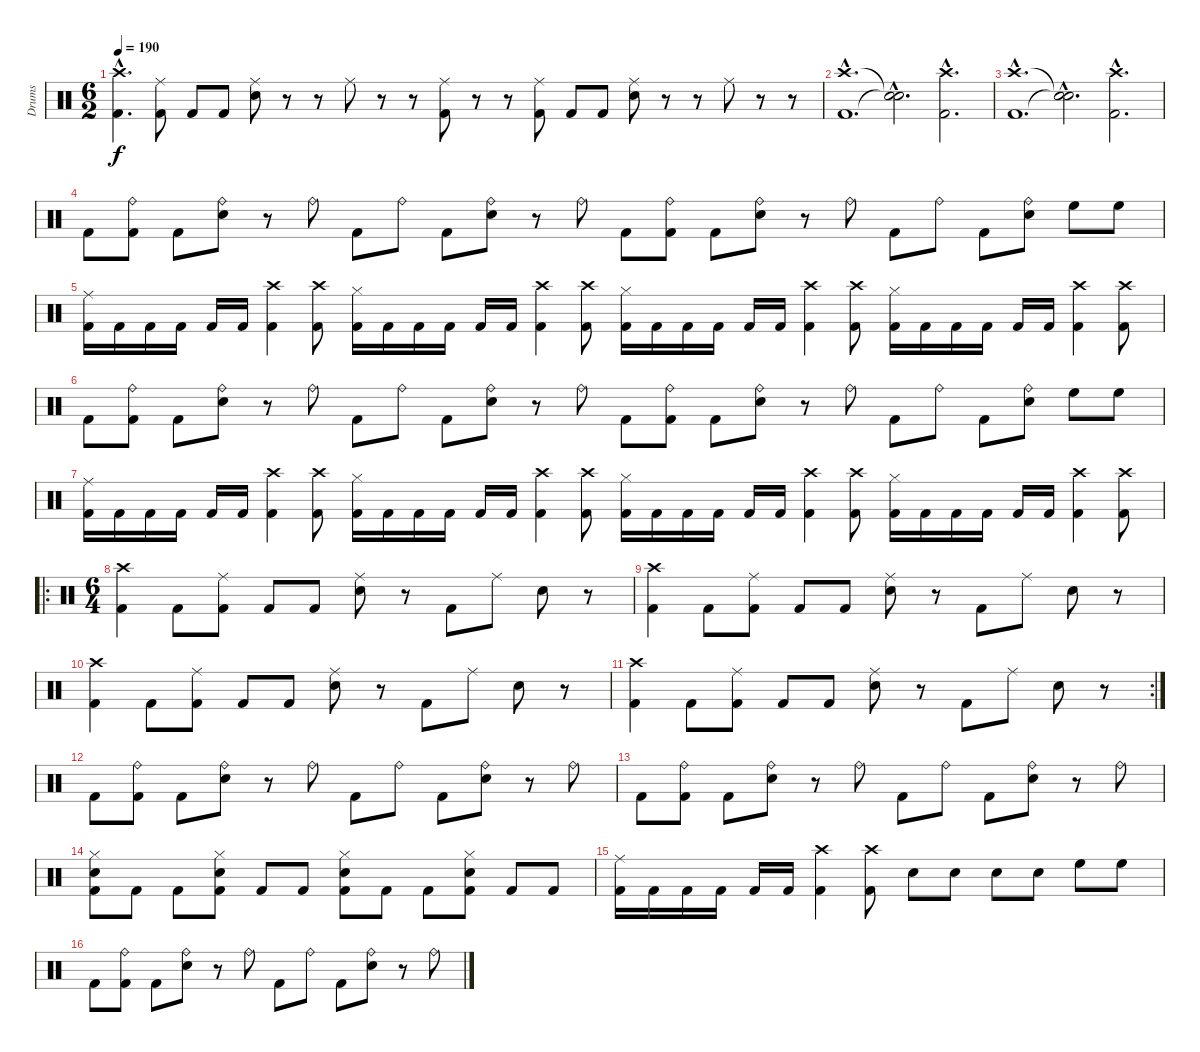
\track ("Drums" "Drums") {instrument percussion}
\staff {score}
\articulation defaults
\ts (6 2)
\tempo 190
\clef neutral
\ks c
("Crash high (hit)"{hac} "Kick (hit) 2"{hac}).4{d dy f} ("Ride (middle)" "Kick (hit) 2").8 "Kick (hit) 2".8 "Kick (hit) 2".8 ("Ride (middle)" "Snare (hit) 2").8 r.8 r.8 "Ride (middle)".8 r.8 r.8 ("Ride (middle)" "Kick (hit) 2").8 r.8 r.8 ("Ride (middle)" "Kick (hit) 2").8 "Kick (hit) 2".8 "Kick (hit) 2".8 ("Ride (middle)" "Snare (hit) 2").8 r.8 r.8 "Ride (middle)".8 r.8 r.8 |
("Crash high (hit)"{hac} "Kick (hit) 2"{hac}).1{d} ("Snare (hit)"{hac t} "Snare (hit)"{hac t}).2{d} ("Crash high (hit)"{hac} "Kick (hit) 2"{hac}).2{d} |
("Crash high (hit)"{hac} "Kick (hit) 2"{hac}).1{d} ("Snare (hit)"{hac t} "Snare (hit)"{hac t}).2{d} ("Crash high (hit)"{hac} "Kick (hit) 2"{hac}).2{d} |
"Kick (hit) 2".8 ("Ride (bell)" "Kick (hit) 2").8 "Kick (hit) 2".8 ("Ride (bell)" "Snare (hit) 2").8 r.8 "Ride (bell)".8 "Kick (hit) 2".8 "Ride (bell)".8 "Kick (hit) 2".8 ("Ride (bell)" "Snare (hit) 2").8 r.8 "Ride (bell)".8 "Kick (hit) 2".8 ("Ride (bell)" "Kick (hit) 2").8 "Kick (hit) 2".8 ("Ride (bell)" "Snare (hit) 2").8 r.8 "Ride (bell)".8 "Kick (hit) 2".8 "Ride (bell)".8 "Kick (hit) 2".8 ("Ride (bell)" "Snare (hit) 2").8 "High Floor Tom (hit)".8 "High Floor Tom (hit)".8 |
("Ride (middle)" "Kick (hit) 2").16 "Kick (hit) 2".16 "Kick (hit) 2".16 "Kick (hit) 2".16 "Kick (hit) 2".16 "Kick (hit) 2".16 ("Crash high (hit)" "Kick (hit) 2").4 ("Crash high (hit)" "Kick (hit) 2").8 ("Hi-Hat (closed)" "Kick (hit) 2").16 "Kick (hit) 2".16 "Kick (hit) 2".16 "Kick (hit) 2".16 "Kick (hit) 2".16 "Kick (hit) 2".16 ("Crash high (hit)" "Kick (hit) 2").4 ("Crash high (hit)" "Kick (hit) 2").8 ("Hi-Hat (closed)" "Kick (hit) 2").16 "Kick (hit) 2".16 "Kick (hit) 2".16 "Kick (hit) 2".16 "Kick (hit) 2".16 "Kick (hit) 2".16 ("Crash high (hit)" "Kick (hit) 2").4 ("Crash high (hit)" "Kick (hit) 2").8 ("Hi-Hat (closed)" "Kick (hit) 2").16 "Kick (hit) 2".16 "Kick (hit) 2".16 "Kick (hit) 2".16 "Kick (hit) 2".16 "Kick (hit) 2".16 ("Crash high (hit)" "Kick (hit) 2").4 ("Crash high (hit)" "Kick (hit) 2").8 |
"Kick (hit) 2".8 ("Ride (bell)" "Kick (hit) 2").8 "Kick (hit) 2".8 ("Ride (bell)" "Snare (hit) 2").8 r.8 "Ride (bell)".8 "Kick (hit) 2".8 "Ride (bell)".8 "Kick (hit) 2".8 ("Ride (bell)" "Snare (hit) 2").8 r.8 "Ride (bell)".8 "Kick (hit) 2".8 ("Ride (bell)" "Kick (hit) 2").8 "Kick (hit) 2".8 ("Ride (bell)" "Snare (hit) 2").8 r.8 "Ride (bell)".8 "Kick (hit) 2".8 "Ride (bell)".8 "Kick (hit) 2".8 ("Ride (bell)" "Snare (hit) 2").8 "High Floor Tom (hit)".8 "High Floor Tom (hit)".8 |
("Ride (middle)" "Kick (hit) 2").16 "Kick (hit) 2".16 "Kick (hit) 2".16 "Kick (hit) 2".16 "Kick (hit) 2".16 "Kick (hit) 2".16 ("Crash high (hit)" "Kick (hit) 2").4 ("Crash high (hit)" "Kick (hit) 2").8 ("Hi-Hat (closed)" "Kick (hit) 2").16 "Kick (hit) 2".16 "Kick (hit) 2".16 "Kick (hit) 2".16 "Kick (hit) 2".16 "Kick (hit) 2".16 ("Crash high (hit)" "Kick (hit) 2").4 ("Crash high (hit)" "Kick (hit) 2").8 ("Hi-Hat (closed)" "Kick (hit) 2").16 "Kick (hit) 2".16 "Kick (hit) 2".16 "Kick (hit) 2".16 "Kick (hit) 2".16 "Kick (hit) 2".16 ("Crash high (hit)" "Kick (hit) 2").4 ("Crash high (hit)" "Kick (hit) 2").8 ("Hi-Hat (closed)" "Kick (hit) 2").16 "Kick (hit) 2".16 "Kick (hit) 2".16 "Kick (hit) 2".16 "Kick (hit) 2".16 "Kick (hit) 2".16 ("Crash high (hit)" "Kick (hit) 2").4 ("Crash high (hit)" "Kick (hit) 2").8 |
\ro
\ts (6 4)
("Crash high (hit)" "Kick (hit) 2").4 "Kick (hit) 2".8 ("Ride (middle)" "Kick (hit) 2").8 "Kick (hit) 2".8 "Kick (hit) 2".8 ("Ride (middle)" "Snare (hit) 2").8 r.8 "Kick (hit) 2".8 "Ride (middle)".8 "Snare (hit) 2".8 r.8 |
("Crash high (hit)" "Kick (hit) 2").4 "Kick (hit) 2".8 ("Ride (middle)" "Kick (hit) 2").8 "Kick (hit) 2".8 "Kick (hit) 2".8 ("Ride (middle)" "Snare (hit) 2").8 r.8 "Kick (hit) 2".8 "Ride (middle)".8 "Snare (hit) 2".8 r.8 |
("Crash high (hit)" "Kick (hit) 2").4 "Kick (hit) 2".8 ("Ride (middle)" "Kick (hit) 2").8 "Kick (hit) 2".8 "Kick (hit) 2".8 ("Ride (middle)" "Snare (hit) 2").8 r.8 "Kick (hit) 2".8 "Ride (middle)".8 "Snare (hit) 2".8 r.8 |
\rc 2
("Crash high (hit)" "Kick (hit) 2").4 "Kick (hit) 2".8 ("Ride (middle)" "Kick (hit) 2").8 "Kick (hit) 2".8 "Kick (hit) 2".8 ("Ride (middle)" "Snare (hit) 2").8 r.8 "Kick (hit) 2".8 "Ride (middle)".8 "Snare (hit) 2".8 r.8 |
"Kick (hit) 2".8 ("Ride (bell)" "Kick (hit) 2").8 "Kick (hit) 2".8 ("Ride (bell)" "Snare (hit) 2").8 r.8 "Ride (bell)".8 "Kick (hit) 2".8 "Ride (bell)".8 "Kick (hit) 2".8 ("Ride (bell)" "Snare (hit) 2").8 r.8 "Ride (bell)".8 |
"Kick (hit) 2".8 ("Ride (bell)" "Kick (hit) 2").8 "Kick (hit) 2".8 ("Ride (bell)" "Snare (hit) 2").8 r.8 "Ride (bell)".8 "Kick (hit) 2".8 "Ride (bell)".8 "Kick (hit) 2".8 ("Ride (bell)" "Snare (hit) 2").8 r.8 "Ride (bell)".8 |
("Hi-Hat (closed)" "Snare (hit) 2" "Kick (hit) 2").8 "Kick (hit) 2".8 "Kick (hit) 2".8 ("Hi-Hat (closed)" "Snare (hit) 2" "Kick (hit) 2").8 "Kick (hit) 2".8 "Kick (hit) 2".8 ("Hi-Hat (closed)" "Snare (hit) 2" "Kick (hit) 2").8 "Kick (hit) 2".8 "Kick (hit) 2".8 ("Hi-Hat (closed)" "Snare (hit) 2" "Kick (hit) 2").8 "Kick (hit) 2".8 "Kick (hit) 2".8 |
("Ride (middle)" "Kick (hit) 2").16 "Kick (hit) 2".16 "Kick (hit) 2".16 "Kick (hit) 2".16 "Kick (hit) 2".16 "Kick (hit) 2".16 ("Crash high (hit)" "Kick (hit) 2").4 ("Crash high (hit)" "Kick (hit) 2").8 "Snare (hit) 2".8 "Snare (hit) 2".8 "Snare (hit) 2".8 "Snare (hit) 2".8 "High Floor Tom (hit)".8 "High Floor Tom (hit)".8 |
"Kick (hit) 2".8 ("Ride (bell)" "Kick (hit) 2").8 "Kick (hit) 2".8 ("Ride (bell)" "Snare (hit) 2").8 r.8 "Ride (bell)".8 "Kick (hit) 2".8 "Ride (bell)".8 "Kick (hit) 2".8 ("Ride (bell)" "Snare (hit) 2").8 r.8 "Ride (bell)".8
